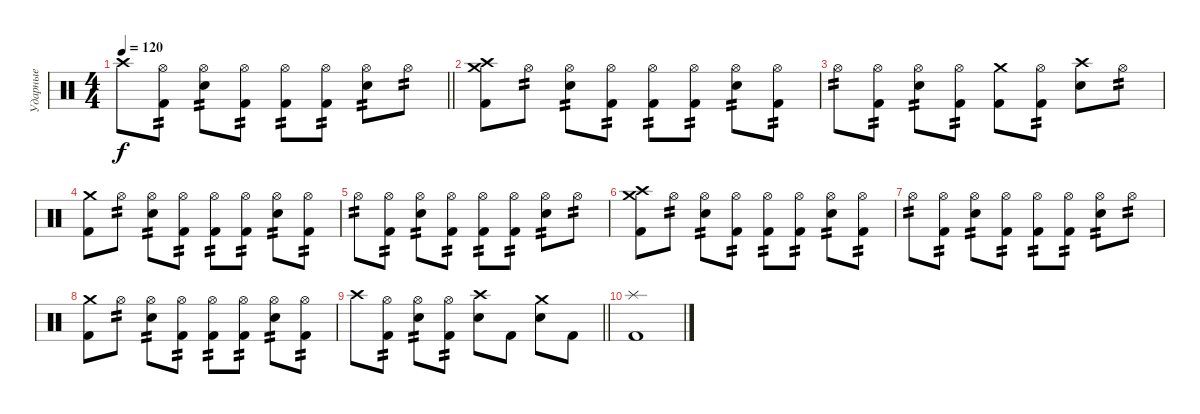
\track ("Ударные" "Ударные") {instrument percussion}
\staff {score}
\articulation defaults
\ts (4 4)
\tempo 120
\clef neutral
\barLineRight lightlight
\ks c "Crash high (hit)".8{dy f}
("Hi-Hat (open)" "Kick (hit) 2").8{tp 2} ("Hi-Hat (open)" "Electric Snare (hit)").8{tp 2} ("Hi-Hat (open)" "Kick (hit) 2").8{tp 2} ("Hi-Hat (open)" "Kick (hit) 2").8{tp 2} ("Hi-Hat (open)" "Kick (hit) 2").8{tp 2} ("Hi-Hat (open)" "Electric Snare (hit)").8{tp 2} "Hi-Hat (open)".8{tp 2} |
("Crash high (hit)" "Crash medium (hit)" "Kick (hit) 2").8 "Hi-Hat (open)".8{tp 2} ("Hi-Hat (open)" "Electric Snare (hit)").8{tp 2} ("Hi-Hat (open)" "Kick (hit) 2").8{tp 2} ("Hi-Hat (open)" "Kick (hit) 2").8{tp 2} ("Hi-Hat (open)" "Kick (hit) 2").8{tp 2} ("Hi-Hat (open)" "Electric Snare (hit)").8{tp 2} ("Hi-Hat (open)" "Kick (hit) 2").8{tp 2} |
"Hi-Hat (open)".8{tp 2} ("Hi-Hat (open)" "Kick (hit) 2").8{tp 2} ("Hi-Hat (open)" "Electric Snare (hit)").8{tp 2} ("Hi-Hat (open)" "Kick (hit) 2").8{tp 2} ("Crash medium (hit)" "Kick (hit) 2").8 ("Hi-Hat (open)" "Kick (hit) 2").8{tp 2} ("Crash high (hit)" "Electric Snare (hit)").8 "Hi-Hat (open)".8{tp 2} |
("Crash medium (hit)" "Kick (hit) 2").8 "Hi-Hat (open)".8{tp 2} ("Hi-Hat (open)" "Electric Snare (hit)").8{tp 2} ("Hi-Hat (open)" "Kick (hit) 2").8{tp 2} ("Hi-Hat (open)" "Kick (hit) 2").8{tp 2} ("Hi-Hat (open)" "Kick (hit) 2").8{tp 2} ("Hi-Hat (open)" "Electric Snare (hit)").8{tp 2} ("Hi-Hat (open)" "Kick (hit) 2").8{tp 2} |
"Hi-Hat (open)".8{tp 2} ("Hi-Hat (open)" "Kick (hit) 2").8{tp 2} ("Hi-Hat (open)" "Electric Snare (hit)").8{tp 2} ("Hi-Hat (open)" "Kick (hit) 2").8{tp 2} ("Hi-Hat (open)" "Kick (hit) 2").8{tp 2} ("Hi-Hat (open)" "Kick (hit) 2").8{tp 2} ("Hi-Hat (open)" "Electric Snare (hit)").8{tp 2} "Hi-Hat (open)".8{tp 2} |
("Crash high (hit)" "Crash medium (hit)" "Kick (hit) 2").8 "Hi-Hat (open)".8{tp 2} ("Hi-Hat (open)" "Electric Snare (hit)").8{tp 2} ("Hi-Hat (open)" "Kick (hit) 2").8{tp 2} ("Hi-Hat (open)" "Kick (hit) 2").8{tp 2} ("Hi-Hat (open)" "Kick (hit) 2").8{tp 2} ("Hi-Hat (open)" "Electric Snare (hit)").8{tp 2} ("Hi-Hat (open)" "Kick (hit) 2").8{tp 2} |
"Hi-Hat (open)".8{tp 2} ("Hi-Hat (open)" "Kick (hit) 2").8{tp 2} ("Hi-Hat (open)" "Electric Snare (hit)").8{tp 2} ("Hi-Hat (open)" "Kick (hit) 2").8{tp 2} ("Hi-Hat (open)" "Kick (hit) 2").8{tp 2} ("Hi-Hat (open)" "Kick (hit) 2").8{tp 2} ("Hi-Hat (open)" "Electric Snare (hit)").8{tp 2} "Hi-Hat (open)".8{tp 2} |
("Crash medium (hit)" "Kick (hit) 2").8 "Hi-Hat (open)".8{tp 2} ("Hi-Hat (open)" "Electric Snare (hit)").8{tp 2} ("Hi-Hat (open)" "Kick (hit) 2").8{tp 2} ("Hi-Hat (open)" "Kick (hit) 2").8{tp 2} ("Hi-Hat (open)" "Kick (hit) 2").8{tp 2} ("Hi-Hat (open)" "Electric Snare (hit)").8{tp 2} ("Hi-Hat (open)" "Kick (hit) 2").8{tp 2} |
\barLineRight lightlight "Crash high (hit)".8
("Hi-Hat (open)" "Kick (hit) 2").8{tp 2} ("Hi-Hat (open)" "Electric Snare (hit)").8{tp 2} ("Hi-Hat (open)" "Kick (hit) 2").8{tp 2} ("Crash high (hit)" "Electric Snare (hit)").8 "Kick (hit) 2".8 ("Crash medium (hit)" "Electric Snare (hit)").8 "Kick (hit) 2".8 |
("Splash (hit)" "Kick (hit) 2").1
